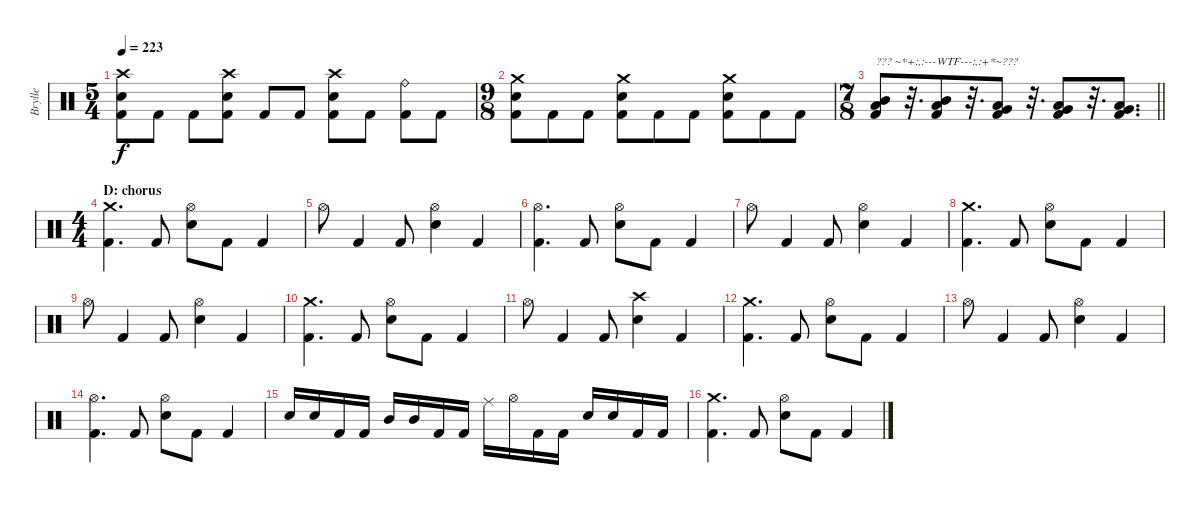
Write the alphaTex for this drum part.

\track ("Brylle" "Brylle") {instrument percussion}
\staff {score}
\articulation defaults
\ts (5 4)
\tempo 223
\clef neutral
\ks c
("Crash high (hit)" "Electric Snare (hit)" "Kick (hit) 2").8{dy f} "Kick (hit) 2".8 "Kick (hit) 2".8 ("Crash high (hit)" "Electric Snare (hit)" "Kick (hit) 2").8 "Kick (hit) 2".8 "Kick (hit) 2".8 ("Crash high (hit)" "Electric Snare (hit)" "Kick (hit) 2").8 "Kick (hit) 2".8 ("Ride (bell)" "Kick (hit) 2").8 "Kick (hit) 2".8 |
\ts (9 8)
("Crash medium (hit)" "Electric Snare (hit)" "Kick (hit) 2").8 "Kick (hit) 2".8 "Kick (hit) 2".8 ("Crash medium (hit)" "Electric Snare (hit)" "Kick (hit) 2").8 "Kick (hit) 2".8 "Kick (hit) 2".8 ("Crash medium (hit)" "Electric Snare (hit)" "Kick (hit) 2").8 "Kick (hit) 2".8 "Kick (hit) 2".8 |
\ts (7 8)
\barLineRight lightlight
("Mid Tom (hit)" "Low Tom (hit)" "Kick (hit) 2").8{txt "??? ~*+:,:---WTF---:,:+*~???"} r.32{d} ("Mid Tom (hit)" "Low Tom (hit)" "Kick (hit) 2").8 r.32{d} ("Low Tom (hit)" "Very Low Tom (hit)" "Kick (hit) 2").8 r.32{d} ("Low Tom (hit)" "Very Low Tom (hit)" "Kick (hit) 2").8 r.32{d} ("Low Tom (hit)" "Very Low Tom (hit)" "Kick (hit) 2").8{d} |
\ts (4 4)
\section ("" "D: chorus")
("Crash medium (hit)" "Kick (hit) 2").4{d} "Kick (hit) 2".8 ("Hi-Hat (open)" "Electric Snare (hit)").8 "Kick (hit) 2".8 "Kick (hit) 2".4 |
"Hi-Hat (open)".8 "Kick (hit) 2".4 "Kick (hit) 2".8 ("Hi-Hat (open)" "Electric Snare (hit)").4 "Kick (hit) 2".4 |
("Hi-Hat (open)" "Kick (hit) 2").4{d} "Kick (hit) 2".8 ("Hi-Hat (open)" "Electric Snare (hit)").8 "Kick (hit) 2".8 "Kick (hit) 2".4 |
"Hi-Hat (open)".8 "Kick (hit) 2".4 "Kick (hit) 2".8 ("Hi-Hat (open)" "Electric Snare (hit)").4 "Kick (hit) 2".4 |
("Crash medium (hit)" "Kick (hit) 2").4{d} "Kick (hit) 2".8 ("Hi-Hat (open)" "Electric Snare (hit)").8 "Kick (hit) 2".8 "Kick (hit) 2".4 |
"Hi-Hat (open)".8 "Kick (hit) 2".4 "Kick (hit) 2".8 ("Hi-Hat (open)" "Electric Snare (hit)").4 "Kick (hit) 2".4 |
("Crash medium (hit)" "Kick (hit) 2").4{d} "Kick (hit) 2".8 ("Hi-Hat (open)" "Electric Snare (hit)").8 "Kick (hit) 2".8 "Kick (hit) 2".4 |
"Hi-Hat (open)".8 "Kick (hit) 2".4 "Kick (hit) 2".8 ("Crash high (hit)" "Electric Snare (hit)").4 "Kick (hit) 2".4 |
("Crash medium (hit)" "Kick (hit) 2").4{d} "Kick (hit) 2".8 ("Hi-Hat (open)" "Electric Snare (hit)").8 "Kick (hit) 2".8 "Kick (hit) 2".4 |
"Hi-Hat (open)".8 "Kick (hit) 2".4 "Kick (hit) 2".8 ("Hi-Hat (open)" "Electric Snare (hit)").4 "Kick (hit) 2".4 |
("Hi-Hat (open)" "Kick (hit) 2").4{d} "Kick (hit) 2".8 ("Hi-Hat (open)" "Electric Snare (hit)").8 "Kick (hit) 2".8 "Kick (hit) 2".4 |
"Electric Snare (hit)".16 "Electric Snare (hit)".16 "Kick (hit) 2".16 "Kick (hit) 2".16 "Mid Tom (hit)".16 "Mid Tom (hit)".16 "Kick (hit) 2".16 "Kick (hit) 2".16 "Ride (middle)".16 "Hi-Hat (open)".16 "Kick (hit) 2".16 "Kick (hit) 2".16 "Electric Snare (hit)".16 "Electric Snare (hit)".16 "Kick (hit) 2".16 "Kick (hit) 2".16 |
("Crash medium (hit)" "Kick (hit) 2").4{d} "Kick (hit) 2".8 ("Hi-Hat (open)" "Electric Snare (hit)").8 "Kick (hit) 2".8 "Kick (hit) 2".4
